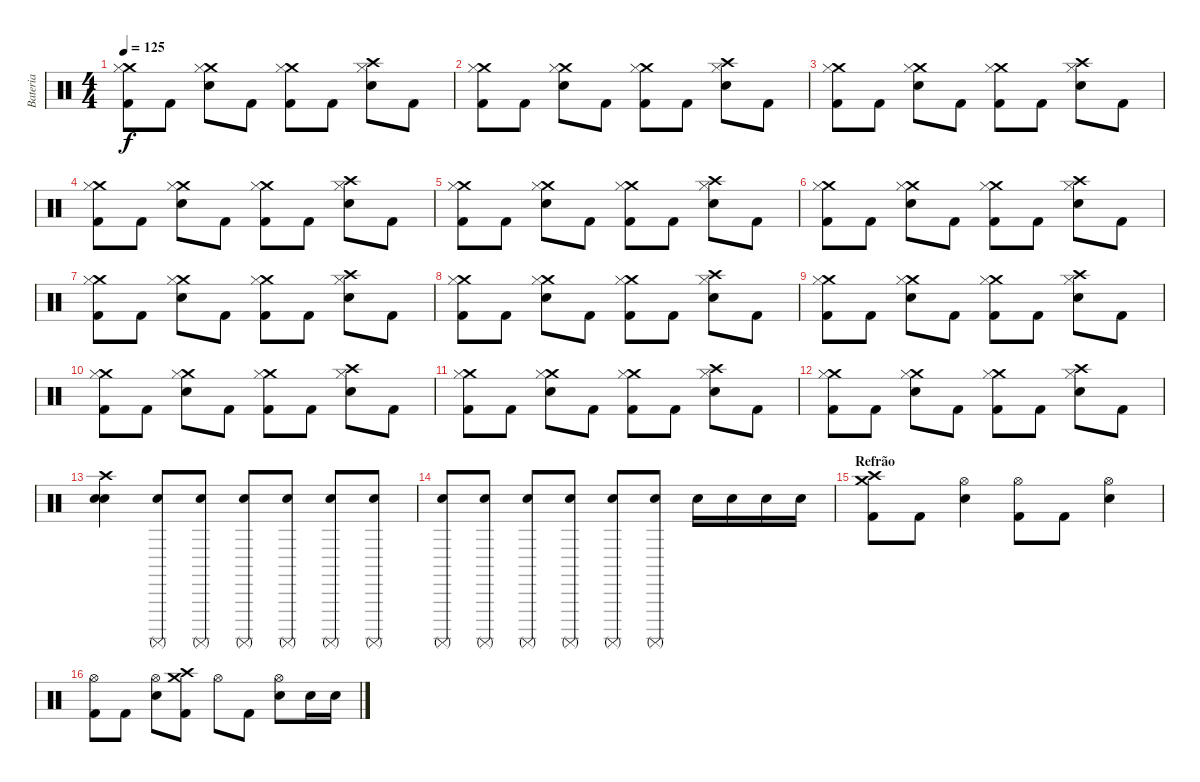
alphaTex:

\track ("Bateria" "Bateria") {instrument percussion}
\staff {score}
\articulation defaults
\ts (4 4)
\tempo 125
\clef neutral
\ks c
("Crash medium (hit)" "Kick (hit) 2" "Hi-Hat (closed)").8{dy f} "Kick (hit) 2".8 ("Crash medium (hit)" "Electric Snare (hit)" "Hi-Hat (closed)").8 "Kick (hit) 2".8 ("Crash medium (hit)" "Kick (hit) 2" "Hi-Hat (closed)").8 "Kick (hit) 2".8 ("Crash high (hit)" "Electric Snare (hit)" "Hi-Hat (closed)").8 "Kick (hit) 2".8 |
("Crash medium (hit)" "Kick (hit) 2" "Hi-Hat (closed)").8 "Kick (hit) 2".8 ("Crash medium (hit)" "Electric Snare (hit)" "Hi-Hat (closed)").8 "Kick (hit) 2".8 ("Crash medium (hit)" "Kick (hit) 2" "Hi-Hat (closed)").8 "Kick (hit) 2".8 ("Crash high (hit)" "Electric Snare (hit)" "Hi-Hat (closed)").8 "Kick (hit) 2".8 |
("Crash medium (hit)" "Kick (hit) 2" "Hi-Hat (closed)").8 "Kick (hit) 2".8 ("Crash medium (hit)" "Electric Snare (hit)" "Hi-Hat (closed)").8 "Kick (hit) 2".8 ("Crash medium (hit)" "Kick (hit) 2" "Hi-Hat (closed)").8 "Kick (hit) 2".8 ("Crash high (hit)" "Electric Snare (hit)" "Hi-Hat (closed)").8 "Kick (hit) 2".8 |
("Crash medium (hit)" "Kick (hit) 2" "Hi-Hat (closed)").8 "Kick (hit) 2".8 ("Crash medium (hit)" "Electric Snare (hit)" "Hi-Hat (closed)").8 "Kick (hit) 2".8 ("Crash medium (hit)" "Kick (hit) 2" "Hi-Hat (closed)").8 "Kick (hit) 2".8 ("Crash high (hit)" "Electric Snare (hit)" "Hi-Hat (closed)").8 "Kick (hit) 2".8 |
("Crash medium (hit)" "Kick (hit) 2" "Hi-Hat (closed)").8 "Kick (hit) 2".8 ("Crash medium (hit)" "Electric Snare (hit)" "Hi-Hat (closed)").8 "Kick (hit) 2".8 ("Crash medium (hit)" "Kick (hit) 2" "Hi-Hat (closed)").8 "Kick (hit) 2".8 ("Crash high (hit)" "Electric Snare (hit)" "Hi-Hat (closed)").8 "Kick (hit) 2".8 |
("Crash medium (hit)" "Kick (hit) 2" "Hi-Hat (closed)").8 "Kick (hit) 2".8 ("Crash medium (hit)" "Electric Snare (hit)" "Hi-Hat (closed)").8 "Kick (hit) 2".8 ("Crash medium (hit)" "Kick (hit) 2" "Hi-Hat (closed)").8 "Kick (hit) 2".8 ("Crash high (hit)" "Electric Snare (hit)" "Hi-Hat (closed)").8 "Kick (hit) 2".8 |
("Crash medium (hit)" "Kick (hit) 2" "Hi-Hat (closed)").8 "Kick (hit) 2".8 ("Crash medium (hit)" "Electric Snare (hit)" "Hi-Hat (closed)").8 "Kick (hit) 2".8 ("Crash medium (hit)" "Kick (hit) 2" "Hi-Hat (closed)").8 "Kick (hit) 2".8 ("Crash high (hit)" "Electric Snare (hit)" "Hi-Hat (closed)").8 "Kick (hit) 2".8 |
("Crash medium (hit)" "Kick (hit) 2" "Hi-Hat (closed)").8 "Kick (hit) 2".8 ("Crash medium (hit)" "Electric Snare (hit)" "Hi-Hat (closed)").8 "Kick (hit) 2".8 ("Crash medium (hit)" "Kick (hit) 2" "Hi-Hat (closed)").8 "Kick (hit) 2".8 ("Crash high (hit)" "Electric Snare (hit)" "Hi-Hat (closed)").8 "Kick (hit) 2".8 |
("Crash medium (hit)" "Kick (hit) 2" "Hi-Hat (closed)").8 "Kick (hit) 2".8 ("Crash medium (hit)" "Electric Snare (hit)" "Hi-Hat (closed)").8 "Kick (hit) 2".8 ("Crash medium (hit)" "Kick (hit) 2" "Hi-Hat (closed)").8 "Kick (hit) 2".8 ("Crash high (hit)" "Electric Snare (hit)" "Hi-Hat (closed)").8 "Kick (hit) 2".8 |
("Crash medium (hit)" "Kick (hit) 2" "Hi-Hat (closed)").8 "Kick (hit) 2".8 ("Crash medium (hit)" "Electric Snare (hit)" "Hi-Hat (closed)").8 "Kick (hit) 2".8 ("Crash medium (hit)" "Kick (hit) 2" "Hi-Hat (closed)").8 "Kick (hit) 2".8 ("Crash high (hit)" "Electric Snare (hit)" "Hi-Hat (closed)").8 "Kick (hit) 2".8 |
("Crash medium (hit)" "Kick (hit) 2" "Hi-Hat (closed)").8 "Kick (hit) 2".8 ("Crash medium (hit)" "Electric Snare (hit)" "Hi-Hat (closed)").8 "Kick (hit) 2".8 ("Crash medium (hit)" "Kick (hit) 2" "Hi-Hat (closed)").8 "Kick (hit) 2".8 ("Crash high (hit)" "Electric Snare (hit)" "Hi-Hat (closed)").8 "Kick (hit) 2".8 |
("Crash medium (hit)" "Kick (hit) 2" "Hi-Hat (closed)").8 "Kick (hit) 2".8 ("Crash medium (hit)" "Electric Snare (hit)" "Hi-Hat (closed)").8 "Kick (hit) 2".8 ("Crash medium (hit)" "Kick (hit) 2" "Hi-Hat (closed)").8 "Kick (hit) 2".8 ("Crash high (hit)" "Electric Snare (hit)" "Hi-Hat (closed)").8 "Kick (hit) 2".8 |
("Crash high (hit)" "Snare (hit) 2" "Electric Snare (hit)").4 ("Surdo (mute)" "Electric Snare (hit)").8{volume 3} ("Surdo (mute)" "Electric Snare (hit)").8{volume 4} ("Surdo (mute)" "Electric Snare (hit)").8{volume 5} ("Surdo (mute)" "Electric Snare (hit)").8{volume 6} ("Surdo (mute)" "Electric Snare (hit)").8{volume 7} ("Surdo (mute)" "Electric Snare (hit)").8{volume 8} |
("Surdo (mute)" "Electric Snare (hit)").8{volume 10} ("Surdo (mute)" "Electric Snare (hit)").8{volume 11} ("Surdo (mute)" "Electric Snare (hit)").8{volume 12} ("Surdo (mute)" "Electric Snare (hit)").8{volume 13} ("Surdo (mute)" "Electric Snare (hit)").8{volume 14} ("Surdo (mute)" "Electric Snare (hit)").8{volume 15} "Electric Snare (hit)".16{volume 13} "Electric Snare (hit)".16 "Electric Snare (hit)".16 "Electric Snare (hit)".16 |
\section ("" "Refrão")
("Crash high (hit)" "Crash medium (hit)" "Kick (hit) 2").8 "Kick (hit) 2".8 ("Electric Snare (hit)" "Hi-Hat (open)").4 ("Kick (hit) 2" "Hi-Hat (open)").8 "Kick (hit) 2".8 ("Electric Snare (hit)" "Hi-Hat (open)").4 |
("Kick (hit) 2" "Hi-Hat (open)").8 "Kick (hit) 2".8 ("Electric Snare (hit)" "Hi-Hat (open)").8 ("Crash high (hit)" "Crash medium (hit)" "Kick (hit) 2").8 "Hi-Hat (open)".8 "Kick (hit) 2".8 ("Electric Snare (hit)" "Hi-Hat (open)").8 "Electric Snare (hit)".16 "Electric Snare (hit)".16
